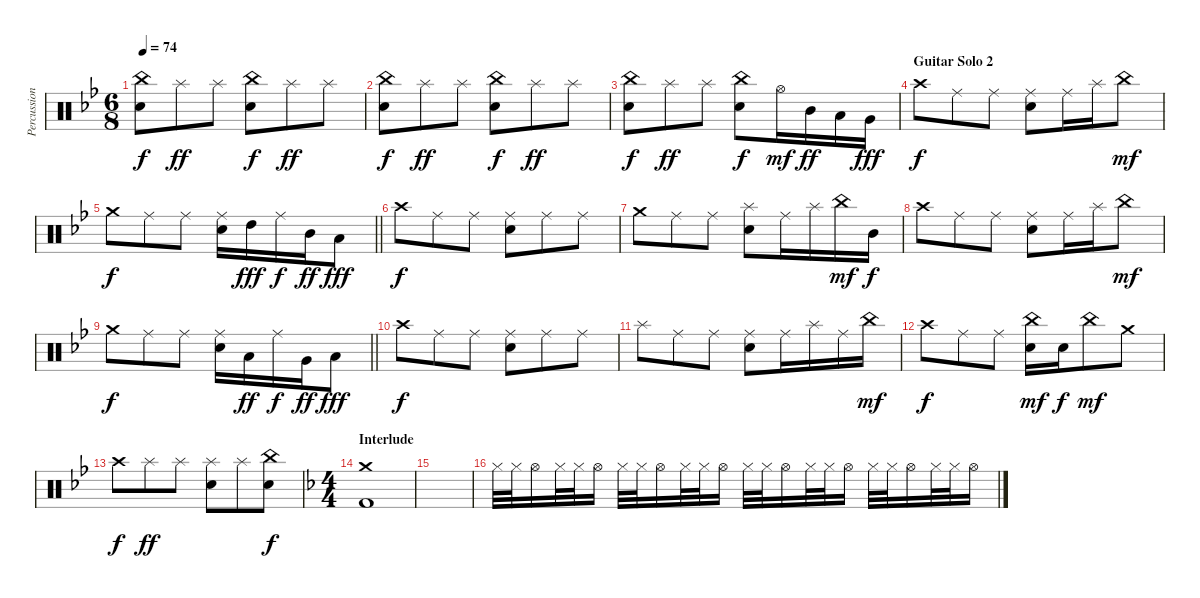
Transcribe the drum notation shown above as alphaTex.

\track ("Percussion" "Percussion") {instrument percussion}
\staff {score}
\articulation defaults
\ts (6 8)
\tempo 74
\clef neutral
\ks bb
("China (hit)" "Electric Snare (hit)").8{dy f} "Splash (hit)".8{dy ff} "Splash (hit)".8 ("China (hit)" "Electric Snare (hit)").8{dy f} "Splash (hit)".8{dy ff} "Splash (hit)".8 |
("China (hit)" "Electric Snare (hit)").8{dy f} "Splash (hit)".8{dy ff} "Splash (hit)".8 ("China (hit)" "Electric Snare (hit)").8{dy f} "Splash (hit)".8{dy ff} "Splash (hit)".8 |
("China (hit)" "Electric Snare (hit)").8{dy f} "Splash (hit)".8{dy ff} "Splash (hit)".8 ("China (hit)" "Electric Snare (hit)").8{dy f} "Hi-Hat (open)".16{dy mf} "Mid Tom (hit)".16{dy ff} "Low Tom (hit)".16 "Very Low Tom (hit)".16{dy fff} |
\section ("" "Guitar Solo 2")
"Crash high (hit)".8{dy f} "Ride (middle)".8 "Ride (middle)".8 ("Ride (middle)" "Electric Snare (hit)").8 "Ride (middle)".16 "Splash (hit)".16 "China (hit)".8{dy mf} |
\barLineRight lightlight "Crash medium (hit)".8{dy f} "Ride (middle)".8 "Ride (middle)".8
("Ride (middle)" "Electric Snare (hit)").16 "High Tom (hit)".16{dy fff} "Ride (middle)".16{dy f} "Mid Tom (hit)".16{dy ff} "Low Tom (hit)".8{dy fff} |
"Crash high (hit)".8{dy f} "Ride (middle)".8 "Ride (middle)".8 ("Ride (middle)" "Electric Snare (hit)").8 "Ride (middle)".8 "Ride (middle)".8 |
"Crash medium (hit)".8 "Ride (middle)".8 "Ride (middle)".8 ("Splash (hit)" "Electric Snare (hit)").8 "Ride (middle)".16 "Splash (hit)".16 "China (hit)".16{dy mf} "Mid Tom (hit)".16{dy f} |
"Crash high (hit)".8 "Ride (middle)".8 "Ride (middle)".8 ("Ride (middle)" "Electric Snare (hit)").8 "Ride (middle)".16 "Splash (hit)".16 "China (hit)".8{dy mf} |
\barLineRight lightlight "Crash medium (hit)".8{dy f} "Ride (middle)".8 "Ride (middle)".8
("Ride (middle)" "Electric Snare (hit)").16 "Low Tom (hit)".16{dy ff} "Ride (middle)".16{dy f} "Very Low Tom (hit)".16{dy ff} "Low Floor Tom (hit)".8{dy fff} |
"Crash high (hit)".8{dy f} "Ride (middle)".8 "Ride (middle)".8 ("Ride (middle)" "Electric Snare (hit)").8 "Ride (middle)".8 "Ride (middle)".8 |
"Splash (hit)".8 "Ride (middle)".8 "Ride (middle)".8 ("Ride (middle)" "Electric Snare (hit)").8 "Ride (middle)".16 "Splash (hit)".16 "Ride (middle)".16 "China (hit)".16{dy mf} |
"Crash high (hit)".8{dy f} "Ride (middle)".8 "Ride (middle)".8 ("China (hit)" "Electric Snare (hit)").16{dy mf} "Electric Snare (hit)".16{dy f} "China (hit)".8{dy mf} "Crash medium (hit)".8 |
"Crash high (hit)".8{dy f} "Splash (hit)".8{dy ff} "Splash (hit)".8 ("Splash (hit)" "Electric Snare (hit)").8 "Splash (hit)".8 ("China (hit)" "Electric Snare (hit)").8{dy f} |
\ts (4 4)
\section ("" "Interlude")
\ks f
("Crash medium (hit)" "Kick (hit) 2").1 |
|
"Hi-Hat (closed)".32 "Hi-Hat (closed)".32 "Hi-Hat (open)".16 "Hi-Hat (closed)".32 "Hi-Hat (closed)".32 "Hi-Hat (open)".16 "Hi-Hat (closed)".32 "Hi-Hat (closed)".32 "Hi-Hat (open)".16 "Hi-Hat (closed)".32 "Hi-Hat (closed)".32 "Hi-Hat (open)".16 "Hi-Hat (closed)".32 "Hi-Hat (closed)".32 "Hi-Hat (open)".16 "Hi-Hat (closed)".32 "Hi-Hat (closed)".32 "Hi-Hat (open)".16 "Hi-Hat (closed)".32 "Hi-Hat (closed)".32 "Hi-Hat (open)".16 "Hi-Hat (closed)".32 "Hi-Hat (closed)".32 "Hi-Hat (open)".16
